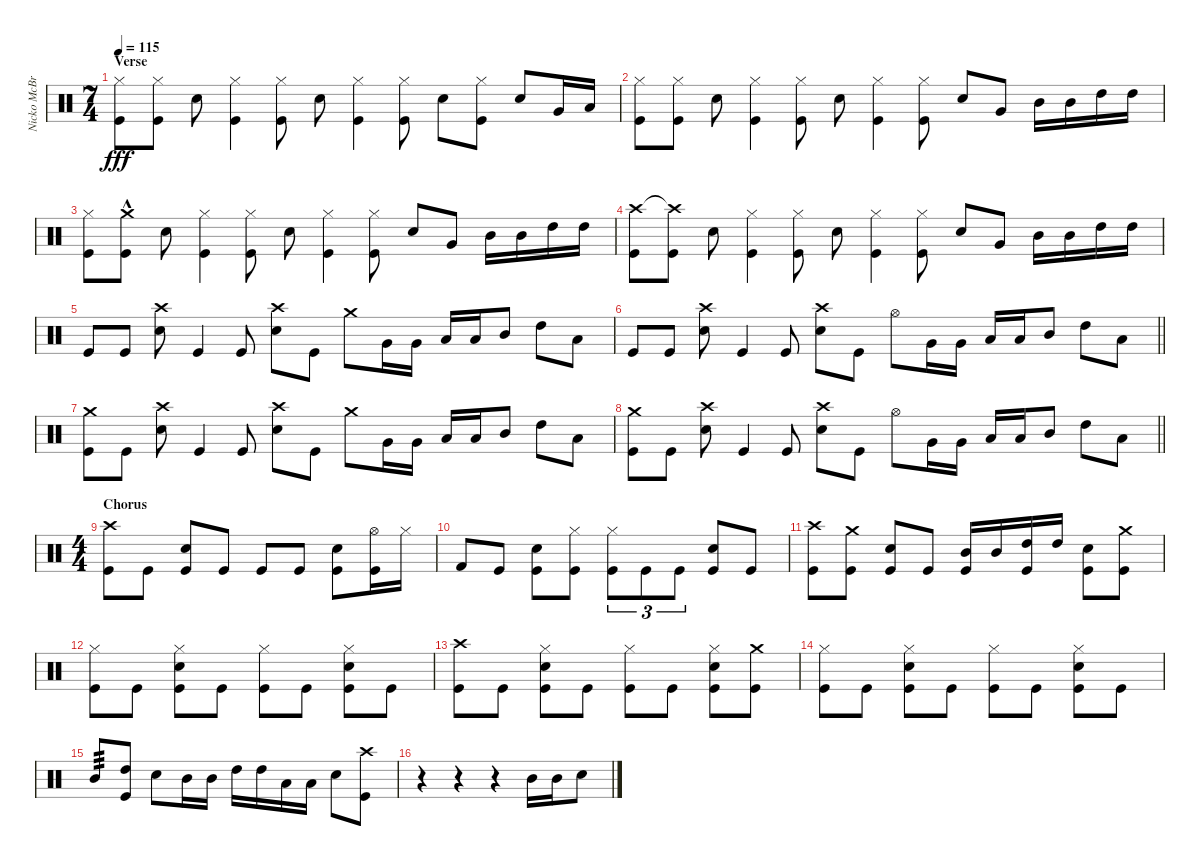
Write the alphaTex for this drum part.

\track ("Nicko McBrain" "Nicko McBr") {instrument percussion}
\staff {score}
\articulation defaults
\ts (7 4)
\section ("" "Verse")
\tempo 115
\clef neutral
\ks c
("Hi-Hat (closed)" "Kick (hit)").8{dy fff} ("Hi-Hat (closed)" "Kick (hit)").8 "Electric Snare (hit)".8 ("Hi-Hat (closed)" "Kick (hit)").4 ("Hi-Hat (closed)" "Kick (hit)").8 "Electric Snare (hit)".8 ("Hi-Hat (closed)" "Kick (hit)").4 ("Hi-Hat (closed)" "Kick (hit)").8 "Electric Snare (hit)".8 ("Hi-Hat (closed)" "Kick (hit)").8 "Electric Snare (hit)".8 "Very Low Tom (hit)".16 "Low Tom (hit)".16 |
("Hi-Hat (closed)" "Kick (hit)").8 ("Hi-Hat (closed)" "Kick (hit)").8 "Electric Snare (hit)".8 ("Hi-Hat (closed)" "Kick (hit)").4 ("Hi-Hat (closed)" "Kick (hit)").8 "Electric Snare (hit)".8 ("Hi-Hat (closed)" "Kick (hit)").4 ("Hi-Hat (closed)" "Kick (hit)").8 "Electric Snare (hit)".8 "Very Low Tom (hit)".8 "Mid Tom (hit)".16 "Mid Tom (hit)".16 "High Tom (hit)".16 "High Tom (hit)".16 |
("Hi-Hat (closed)" "Kick (hit)").8 ("Crash medium (hit)"{hac} "Kick (hit)").8 "Electric Snare (hit)".8 ("Hi-Hat (closed)" "Kick (hit)").4 ("Hi-Hat (closed)" "Kick (hit)").8 "Electric Snare (hit)".8 ("Hi-Hat (closed)" "Kick (hit)").4 ("Hi-Hat (closed)" "Kick (hit)").8 "Electric Snare (hit)".8 "Very Low Tom (hit)".8 "Mid Tom (hit)".16 "Mid Tom (hit)".16 "High Tom (hit)".16 "High Tom (hit)".16 |
("Crash high (hit)" "Kick (hit)").8 ("Crash high (hit)"{t} "Kick (hit)").8 "Electric Snare (hit)".8 ("Hi-Hat (closed)" "Kick (hit)").4 ("Hi-Hat (closed)" "Kick (hit)").8 "Electric Snare (hit)".8 ("Hi-Hat (closed)" "Kick (hit)").4 ("Hi-Hat (closed)" "Kick (hit)").8 "Electric Snare (hit)".8 "Very Low Tom (hit)".8 "Mid Tom (hit)".16 "Mid Tom (hit)".16 "High Tom (hit)".16 "High Tom (hit)".16 |
"Kick (hit)".8 "Kick (hit)".8 ("Crash high (hit)" "Electric Snare (hit)").8 "Kick (hit)".4 "Kick (hit)".8 ("Crash high (hit)" "Electric Snare (hit)").8 "Kick (hit)".8 "Crash medium (hit)".8 "Very Low Tom (hit)".16 "Very Low Tom (hit)".16 "Low Tom (hit)".16 "Low Tom (hit)".16 "Mid Tom (hit)".8 "High Tom (hit)".8 "Low Tom (hit)".8 |
\barLineRight lightlight "Kick (hit)".8 "Kick (hit)".8
("Crash high (hit)" "Electric Snare (hit)").8 "Kick (hit)".4 "Kick (hit)".8 ("Crash high (hit)" "Electric Snare (hit)").8 "Kick (hit)".8 "Hi-Hat (open)".8 "Very Low Tom (hit)".16 "Very Low Tom (hit)".16 "Low Tom (hit)".16 "Low Tom (hit)".16 "Mid Tom (hit)".8 "High Tom (hit)".8 "Low Tom (hit)".8 |
("Crash medium (hit)" "Kick (hit)").8 "Kick (hit)".8 ("Crash high (hit)" "Electric Snare (hit)").8 "Kick (hit)".4 "Kick (hit)".8 ("Crash high (hit)" "Electric Snare (hit)").8 "Kick (hit)".8 "Crash medium (hit)".8 "Very Low Tom (hit)".16 "Very Low Tom (hit)".16 "Low Tom (hit)".16 "Low Tom (hit)".16 "Mid Tom (hit)".8 "High Tom (hit)".8 "Low Tom (hit)".8 |
\barLineRight lightlight
("Crash medium (hit)" "Kick (hit)").8 "Kick (hit)".8 ("Crash high (hit)" "Electric Snare (hit)").8 "Kick (hit)".4 "Kick (hit)".8 ("Crash high (hit)" "Electric Snare (hit)").8 "Kick (hit)".8 "Hi-Hat (open)".8 "Very Low Tom (hit)".16 "Very Low Tom (hit)".16 "Low Tom (hit)".16 "Low Tom (hit)".16 "Mid Tom (hit)".8 "High Tom (hit)".8 "Low Tom (hit)".8 |
\ts (4 4)
\section ("" "Chorus")
("Crash high (hit)" "Kick (hit)").8 "Kick (hit)".8 ("Kick (hit)" "Electric Snare (hit)").8 "Kick (hit)".8 "Kick (hit)".8 "Kick (hit)".8 ("Kick (hit)" "Electric Snare (hit)").8 ("Hi-Hat (open)" "Kick (hit)").16 "Hi-Hat (closed)".16 |
"Kick (hit) 2".8 "Kick (hit)".8 ("Kick (hit)" "Electric Snare (hit)").8 ("Hi-Hat (closed)" "Kick (hit)").8 ("Hi-Hat (closed)" "Kick (hit)").8{tu (3 2)} "Kick (hit)".8{tu (3 2)} "Kick (hit)".8{tu (3 2)} ("Kick (hit)" "Electric Snare (hit)").8 "Kick (hit)".8 |
("Crash high (hit)" "Kick (hit)").8 ("Crash medium (hit)" "Kick (hit)").8 ("Kick (hit)" "Electric Snare (hit)").8 "Kick (hit)".8 ("Mid Tom (hit)" "Kick (hit)").16 "Mid Tom (hit)".16 ("High Tom (hit)" "Kick (hit)").16 "High Tom (hit)".16 ("Kick (hit)" "Electric Snare (hit)").8 ("Crash medium (hit)" "Kick (hit)").8 |
("Hi-Hat (closed)" "Kick (hit)").8 "Kick (hit)".8 ("Hi-Hat (closed)" "Kick (hit)" "Electric Snare (hit)").8 "Kick (hit)".8 ("Hi-Hat (closed)" "Kick (hit)").8 "Kick (hit)".8 ("Hi-Hat (closed)" "Kick (hit)" "Electric Snare (hit)").8 "Kick (hit)".8 |
("Crash high (hit)" "Kick (hit)").8 "Kick (hit)".8 ("Hi-Hat (closed)" "Kick (hit)" "Electric Snare (hit)").8 "Kick (hit)".8 ("Hi-Hat (closed)" "Kick (hit)").8 "Kick (hit)".8 ("Hi-Hat (closed)" "Kick (hit)" "Electric Snare (hit)").8 ("Crash medium (hit)" "Kick (hit)").8 |
("Hi-Hat (closed)" "Kick (hit)").8 "Kick (hit)".8 ("Hi-Hat (closed)" "Kick (hit)" "Electric Snare (hit)").8 "Kick (hit)".8 ("Hi-Hat (closed)" "Kick (hit)").8 "Kick (hit)".8 ("Hi-Hat (closed)" "Kick (hit)" "Electric Snare (hit)").8 "Kick (hit)".8 |
"Mid Tom (hit)".8{tp 3} ("High Tom (hit)" "Kick (hit)").8 "Electric Snare (hit)".8 "Mid Tom (hit)".16 "Mid Tom (hit)".16 "High Tom (hit)".16 "High Tom (hit)".16 "Low Tom (hit)".16 "Low Tom (hit)".16 "Electric Snare (hit)".8 ("Crash high (hit)" "Kick (hit)").8 |
r.4 r.4 r.4 "Mid Tom (hit)".16 "Mid Tom (hit)".16 "Electric Snare (hit)".8
